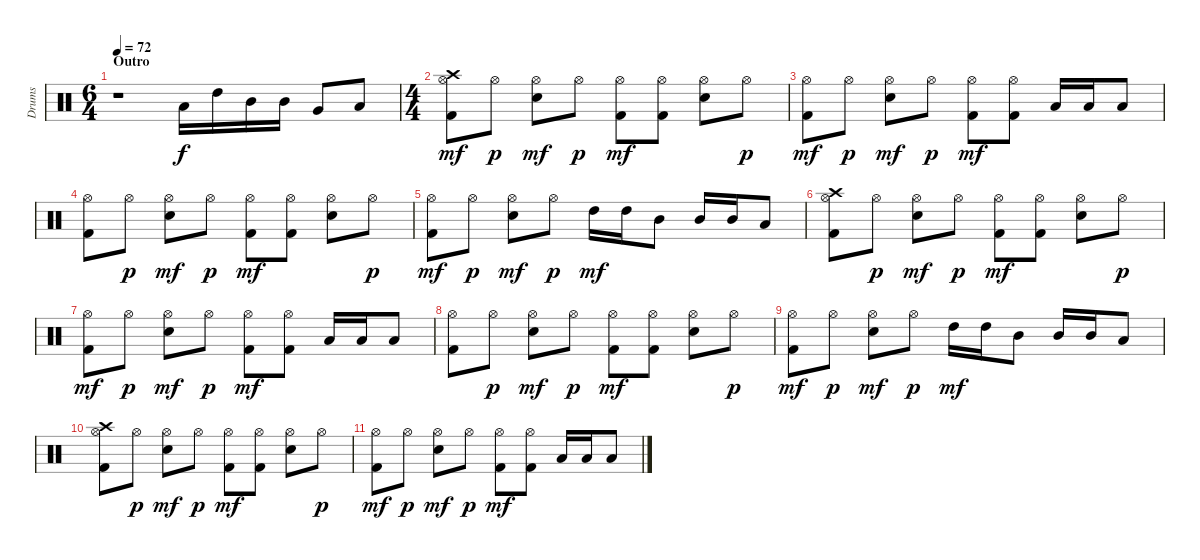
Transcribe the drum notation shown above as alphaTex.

\track ("Drums" "Drums") {instrument percussion}
\staff {score}
\articulation defaults
\ts (6 4)
\section ("" "Outro")
\tempo 72
\clef neutral
\ks c
r.1{dy mf} "Low Tom (hit)".16{dy f} "High Tom (hit)".16 "Mid Tom (hit)".16 "Mid Tom (hit)".16 "Very Low Tom (hit)".8 "Low Tom (hit)".8 |
\ts (4 4)
("Crash high (hit)" "Hi-Hat (open)" "Kick (hit) 2").8{dy mf} "Hi-Hat (open)".8{dy p} ("Hi-Hat (open)" "Snare (hit) 2").8{dy mf} "Hi-Hat (open)".8{dy p} ("Hi-Hat (open)" "Kick (hit) 2").8{dy mf} ("Hi-Hat (open)" "Kick (hit) 2").8 ("Hi-Hat (open)" "Snare (hit) 2").8 "Hi-Hat (open)".8{dy p} |
("Hi-Hat (open)" "Kick (hit) 2").8{dy mf} "Hi-Hat (open)".8{dy p} ("Hi-Hat (open)" "Snare (hit) 2").8{dy mf} "Hi-Hat (open)".8{dy p} ("Hi-Hat (open)" "Kick (hit) 2").8{dy mf} ("Hi-Hat (open)" "Kick (hit) 2").8 "Low Tom (hit)".16 "Low Tom (hit)".16 "Low Tom (hit)".8 |
("Hi-Hat (open)" "Kick (hit) 2").8 "Hi-Hat (open)".8{dy p} ("Hi-Hat (open)" "Snare (hit) 2").8{dy mf} "Hi-Hat (open)".8{dy p} ("Hi-Hat (open)" "Kick (hit) 2").8{dy mf} ("Hi-Hat (open)" "Kick (hit) 2").8 ("Hi-Hat (open)" "Snare (hit) 2").8 "Hi-Hat (open)".8{dy p} |
("Hi-Hat (open)" "Kick (hit) 2").8{dy mf} "Hi-Hat (open)".8{dy p} ("Hi-Hat (open)" "Snare (hit) 2").8{dy mf} "Hi-Hat (open)".8{dy p} "High Tom (hit)".16{dy mf} "High Tom (hit)".16 "Mid Tom (hit)".8 "Mid Tom (hit)".16 "Mid Tom (hit)".16 "Low Tom (hit)".8 |
("Crash high (hit)" "Hi-Hat (open)" "Kick (hit) 2").8 "Hi-Hat (open)".8{dy p} ("Hi-Hat (open)" "Snare (hit) 2").8{dy mf} "Hi-Hat (open)".8{dy p} ("Hi-Hat (open)" "Kick (hit) 2").8{dy mf} ("Hi-Hat (open)" "Kick (hit) 2").8 ("Hi-Hat (open)" "Snare (hit) 2").8 "Hi-Hat (open)".8{dy p} |
("Hi-Hat (open)" "Kick (hit) 2").8{dy mf} "Hi-Hat (open)".8{dy p} ("Hi-Hat (open)" "Snare (hit) 2").8{dy mf} "Hi-Hat (open)".8{dy p} ("Hi-Hat (open)" "Kick (hit) 2").8{dy mf} ("Hi-Hat (open)" "Kick (hit) 2").8 "Low Tom (hit)".16 "Low Tom (hit)".16 "Low Tom (hit)".8 |
("Hi-Hat (open)" "Kick (hit) 2").8 "Hi-Hat (open)".8{dy p} ("Hi-Hat (open)" "Snare (hit) 2").8{dy mf} "Hi-Hat (open)".8{dy p} ("Hi-Hat (open)" "Kick (hit) 2").8{dy mf} ("Hi-Hat (open)" "Kick (hit) 2").8 ("Hi-Hat (open)" "Snare (hit) 2").8 "Hi-Hat (open)".8{dy p} |
("Hi-Hat (open)" "Kick (hit) 2").8{dy mf} "Hi-Hat (open)".8{dy p} ("Hi-Hat (open)" "Snare (hit) 2").8{dy mf} "Hi-Hat (open)".8{dy p} "High Tom (hit)".16{dy mf} "High Tom (hit)".16 "Mid Tom (hit)".8 "Mid Tom (hit)".16 "Mid Tom (hit)".16 "Low Tom (hit)".8 |
("Crash high (hit)" "Hi-Hat (open)" "Kick (hit) 2").8 "Hi-Hat (open)".8{dy p} ("Hi-Hat (open)" "Snare (hit) 2").8{dy mf} "Hi-Hat (open)".8{dy p} ("Hi-Hat (open)" "Kick (hit) 2").8{dy mf} ("Hi-Hat (open)" "Kick (hit) 2").8 ("Hi-Hat (open)" "Snare (hit) 2").8 "Hi-Hat (open)".8{dy p} |
("Hi-Hat (open)" "Kick (hit) 2").8{dy mf} "Hi-Hat (open)".8{dy p} ("Hi-Hat (open)" "Snare (hit) 2").8{dy mf} "Hi-Hat (open)".8{dy p} ("Hi-Hat (open)" "Kick (hit) 2").8{dy mf} ("Hi-Hat (open)" "Kick (hit) 2").8 "Low Tom (hit)".16 "Low Tom (hit)".16 "Low Tom (hit)".8
